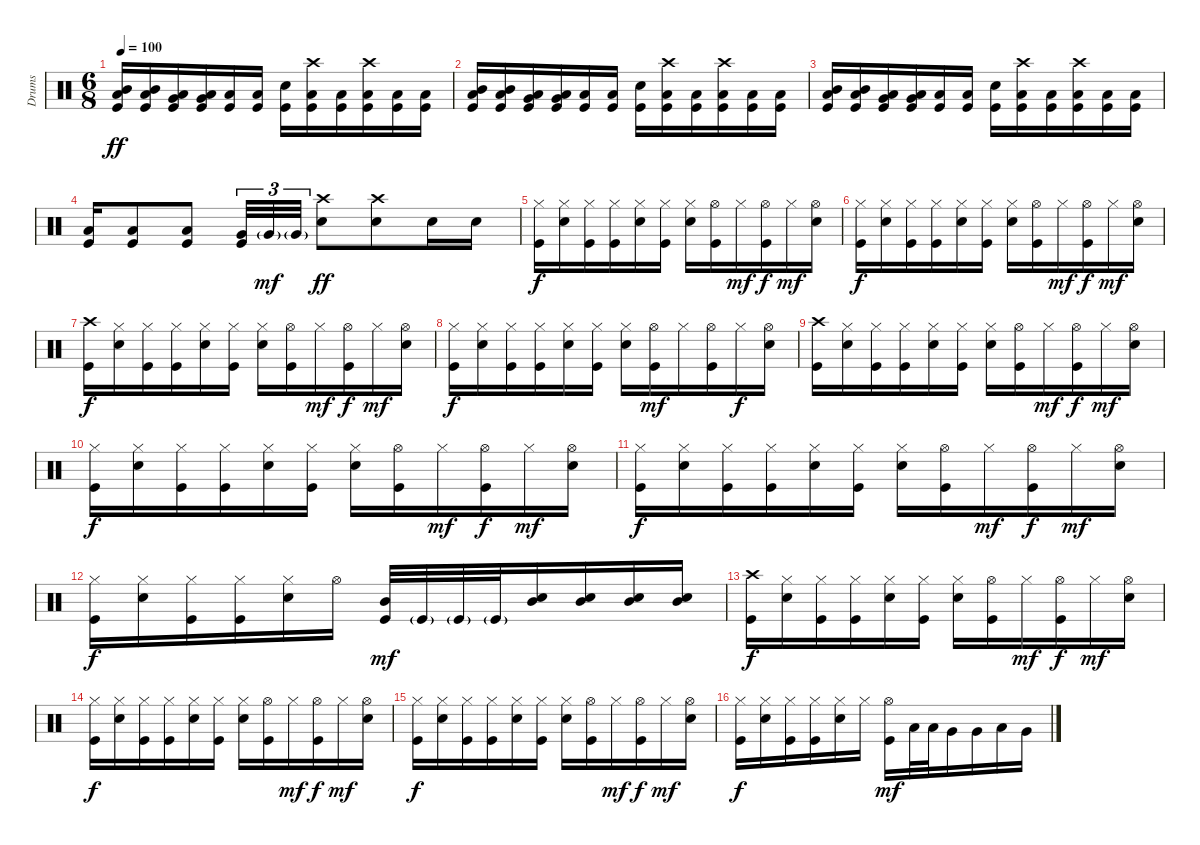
\track ("Drums" "Drums") {instrument percussion}
\staff {score}
\articulation defaults
\ts (6 8)
\tempo 100
\clef neutral
\ks c
("Mid Tom (hit)" "Low Tom (hit)" "Kick (hit)").16{dy ff} ("Mid Tom (hit)" "Low Tom (hit)" "Kick (hit)").16 ("Low Tom (hit)" "Very Low Tom (hit)" "Kick (hit)").16 ("Low Tom (hit)" "Very Low Tom (hit)" "Kick (hit)").16 ("Low Floor Tom (hit)" "Kick (hit)").16 ("Low Floor Tom (hit)" "Kick (hit)").16 ("Electric Snare (hit)" "Kick (hit)").16 ("Crash high (hit)" "Low Tom (hit)" "Kick (hit)").16 ("Low Tom (hit)" "Kick (hit)").16 ("Crash high (hit)" "Low Tom (hit)" "Kick (hit)").16 ("Low Tom (hit)" "Kick (hit)").16 ("Low Tom (hit)" "Kick (hit)").16 |
("Mid Tom (hit)" "Low Tom (hit)" "Kick (hit)").16 ("Mid Tom (hit)" "Low Tom (hit)" "Kick (hit)").16 ("Low Tom (hit)" "Very Low Tom (hit)" "Kick (hit)").16 ("Low Tom (hit)" "Very Low Tom (hit)" "Kick (hit)").16 ("Low Floor Tom (hit)" "Kick (hit)").16 ("Low Floor Tom (hit)" "Kick (hit)").16 ("Electric Snare (hit)" "Kick (hit)").16 ("Crash high (hit)" "Low Tom (hit)" "Kick (hit)").16 ("Low Tom (hit)" "Kick (hit)").16 ("Crash high (hit)" "Low Tom (hit)" "Kick (hit)").16 ("Low Tom (hit)" "Kick (hit)").16 ("Low Tom (hit)" "Kick (hit)").16 |
("Mid Tom (hit)" "Low Tom (hit)" "Kick (hit)").16 ("Mid Tom (hit)" "Low Tom (hit)" "Kick (hit)").16 ("Low Tom (hit)" "Very Low Tom (hit)" "Kick (hit)").16 ("Low Tom (hit)" "Very Low Tom (hit)" "Kick (hit)").16 ("Low Floor Tom (hit)" "Kick (hit)").16 ("Low Floor Tom (hit)" "Kick (hit)").16 ("Electric Snare (hit)" "Kick (hit)").16 ("Crash high (hit)" "Low Tom (hit)" "Kick (hit)").16 ("Low Tom (hit)" "Kick (hit)").16 ("Crash high (hit)" "Low Tom (hit)" "Kick (hit)").16 ("Low Tom (hit)" "Kick (hit)").16 ("Low Tom (hit)" "Kick (hit)").16 |
("Low Floor Tom (hit)" "Kick (hit)").16{volume 13} ("Low Floor Tom (hit)" "Kick (hit)").8 ("Low Floor Tom (hit)" "Kick (hit)").8 ("Very Low Tom (hit)" "Kick (hit)").32{tu (3 2)} "Very Low Tom (hit)"{g}.32{tu (3 2) dy mf} "Very Low Tom (hit)"{g}.32{tu (3 2)} ("Crash high (hit)" "Electric Snare (hit)").8{dy ff} ("Crash high (hit)" "Electric Snare (hit)").8 "Electric Snare (hit)".16 "Electric Snare (hit)".16 |
("Hi-Hat (closed)" "Kick (hit)").16{dy f} ("Hi-Hat (closed)" "Electric Snare (hit)").16 ("Hi-Hat (closed)" "Kick (hit)").16 ("Hi-Hat (closed)" "Kick (hit)").16 ("Hi-Hat (closed)" "Electric Snare (hit)").16 ("Hi-Hat (closed)" "Kick (hit)").16 ("Hi-Hat (closed)" "Electric Snare (hit)").16 ("Hi-Hat (open)" "Kick (hit)").16 "Hi-Hat (closed)".16{dy mf} ("Hi-Hat (open)" "Kick (hit)").16{dy f} "Hi-Hat (closed)".16{dy mf} ("Hi-Hat (open)" "Electric Snare (hit)").16 |
("Hi-Hat (closed)" "Kick (hit)").16{dy f} ("Hi-Hat (closed)" "Electric Snare (hit)").16 ("Hi-Hat (closed)" "Kick (hit)").16 ("Hi-Hat (closed)" "Kick (hit)").16 ("Hi-Hat (closed)" "Electric Snare (hit)").16 ("Hi-Hat (closed)" "Kick (hit)").16 ("Hi-Hat (closed)" "Electric Snare (hit)").16 ("Hi-Hat (open)" "Kick (hit)").16 "Hi-Hat (closed)".16{dy mf} ("Hi-Hat (open)" "Kick (hit)").16{dy f} "Hi-Hat (closed)".16{dy mf} ("Hi-Hat (open)" "Electric Snare (hit)").16 |
("Crash high (hit)" "Kick (hit)").16{dy f} ("Hi-Hat (closed)" "Electric Snare (hit)").16 ("Hi-Hat (closed)" "Kick (hit)").16 ("Hi-Hat (closed)" "Kick (hit)").16 ("Hi-Hat (closed)" "Electric Snare (hit)").16 ("Hi-Hat (closed)" "Kick (hit)").16 ("Hi-Hat (closed)" "Electric Snare (hit)").16 ("Hi-Hat (open)" "Kick (hit)").16 "Hi-Hat (closed)".16{dy mf} ("Hi-Hat (open)" "Kick (hit)").16{dy f} "Hi-Hat (closed)".16{dy mf} ("Hi-Hat (open)" "Electric Snare (hit)").16 |
("Hi-Hat (closed)" "Kick (hit)").16{dy f} ("Hi-Hat (closed)" "Electric Snare (hit)").16 ("Hi-Hat (closed)" "Kick (hit)").16 ("Hi-Hat (closed)" "Kick (hit)").16 ("Hi-Hat (closed)" "Electric Snare (hit)").16 ("Hi-Hat (closed)" "Kick (hit)").16 ("Hi-Hat (closed)" "Electric Snare (hit)").16 ("Hi-Hat (open)" "Kick (hit)").16{dy mf} "Hi-Hat (closed)".16 ("Hi-Hat (open)" "Kick (hit)").16 "Hi-Hat (closed)".16{dy f} ("Hi-Hat (open)" "Electric Snare (hit)").16 |
("Crash high (hit)" "Kick (hit)").16 ("Hi-Hat (closed)" "Electric Snare (hit)").16 ("Hi-Hat (closed)" "Kick (hit)").16 ("Hi-Hat (closed)" "Kick (hit)").16 ("Hi-Hat (closed)" "Electric Snare (hit)").16 ("Hi-Hat (closed)" "Kick (hit)").16 ("Hi-Hat (closed)" "Electric Snare (hit)").16 ("Hi-Hat (open)" "Kick (hit)").16 "Hi-Hat (closed)".16{dy mf} ("Hi-Hat (open)" "Kick (hit)").16{dy f} "Hi-Hat (closed)".16{dy mf} ("Hi-Hat (open)" "Electric Snare (hit)").16 |
("Hi-Hat (closed)" "Kick (hit)").16{dy f} ("Hi-Hat (closed)" "Electric Snare (hit)").16 ("Hi-Hat (closed)" "Kick (hit)").16 ("Hi-Hat (closed)" "Kick (hit)").16 ("Hi-Hat (closed)" "Electric Snare (hit)").16 ("Hi-Hat (closed)" "Kick (hit)").16 ("Hi-Hat (closed)" "Electric Snare (hit)").16 ("Hi-Hat (open)" "Kick (hit)").16 "Hi-Hat (closed)".16{dy mf} ("Hi-Hat (open)" "Kick (hit)").16{dy f} "Hi-Hat (closed)".16{dy mf} ("Hi-Hat (open)" "Electric Snare (hit)").16 |
("Hi-Hat (closed)" "Kick (hit)").16{dy f} ("Hi-Hat (closed)" "Electric Snare (hit)").16 ("Hi-Hat (closed)" "Kick (hit)").16 ("Hi-Hat (closed)" "Kick (hit)").16 ("Hi-Hat (closed)" "Electric Snare (hit)").16 ("Hi-Hat (closed)" "Kick (hit)").16 ("Hi-Hat (closed)" "Electric Snare (hit)").16 ("Hi-Hat (open)" "Kick (hit)").16 "Hi-Hat (closed)".16{dy mf} ("Hi-Hat (open)" "Kick (hit)").16{dy f} "Hi-Hat (closed)".16{dy mf} ("Hi-Hat (open)" "Electric Snare (hit)").16 |
("Hi-Hat (closed)" "Kick (hit)").16{dy f} ("Hi-Hat (closed)" "Electric Snare (hit)").16 ("Hi-Hat (closed)" "Kick (hit)").16 ("Hi-Hat (closed)" "Kick (hit)").16 ("Hi-Hat (closed)" "Electric Snare (hit)").16 "Hi-Hat (open)".16 ("Mid Tom (hit)" "Kick (hit)").32{dy mf} "Kick (hit)"{g}.32 "Kick (hit)"{g}.32 "Kick (hit)"{g}.32 ("Mid Tom (hit)" "Electric Snare (hit)").16 ("Mid Tom (hit)" "Electric Snare (hit)").16 ("Mid Tom (hit)" "Electric Snare (hit)").16 ("Mid Tom (hit)" "Electric Snare (hit)").16 |
("Crash high (hit)" "Kick (hit)").16{dy f} ("Hi-Hat (closed)" "Electric Snare (hit)").16 ("Hi-Hat (closed)" "Kick (hit)").16 ("Hi-Hat (closed)" "Kick (hit)").16 ("Hi-Hat (closed)" "Electric Snare (hit)").16 ("Hi-Hat (closed)" "Kick (hit)").16 ("Hi-Hat (closed)" "Electric Snare (hit)").16 ("Hi-Hat (open)" "Kick (hit)").16 "Hi-Hat (closed)".16{dy mf} ("Hi-Hat (open)" "Kick (hit)").16{dy f} "Hi-Hat (closed)".16{dy mf} ("Hi-Hat (open)" "Electric Snare (hit)").16 |
("Hi-Hat (closed)" "Kick (hit)").16{dy f} ("Hi-Hat (closed)" "Electric Snare (hit)").16 ("Hi-Hat (closed)" "Kick (hit)").16 ("Hi-Hat (closed)" "Kick (hit)").16 ("Hi-Hat (closed)" "Electric Snare (hit)").16 ("Hi-Hat (closed)" "Kick (hit)").16 ("Hi-Hat (closed)" "Electric Snare (hit)").16 ("Hi-Hat (open)" "Kick (hit)").16 "Hi-Hat (closed)".16{dy mf} ("Hi-Hat (open)" "Kick (hit)").16{dy f} "Hi-Hat (closed)".16{dy mf} ("Hi-Hat (open)" "Electric Snare (hit)").16 |
("Hi-Hat (closed)" "Kick (hit)").16{dy f} ("Hi-Hat (closed)" "Electric Snare (hit)").16 ("Hi-Hat (closed)" "Kick (hit)").16 ("Hi-Hat (closed)" "Kick (hit)").16 ("Hi-Hat (closed)" "Electric Snare (hit)").16 ("Hi-Hat (closed)" "Kick (hit)").16 ("Hi-Hat (closed)" "Electric Snare (hit)").16 ("Hi-Hat (open)" "Kick (hit)").16 "Hi-Hat (closed)".16{dy mf} ("Hi-Hat (open)" "Kick (hit)").16{dy f} "Hi-Hat (closed)".16{dy mf} ("Hi-Hat (open)" "Electric Snare (hit)").16 |
("Hi-Hat (closed)" "Kick (hit)").16{dy f} ("Hi-Hat (closed)" "Electric Snare (hit)").16 ("Hi-Hat (closed)" "Kick (hit)").16 ("Hi-Hat (closed)" "Kick (hit)").16 ("Hi-Hat (closed)" "Electric Snare (hit)").16 "Hi-Hat (closed)".16 ("Hi-Hat (open)" "Kick (hit)").16{dy mf} "Low Tom (hit)".32 "Low Tom (hit)".32 "Very Low Tom (hit)".16 "Very Low Tom (hit)".16 "Low Tom (hit)".16 "Very Low Tom (hit)".16
